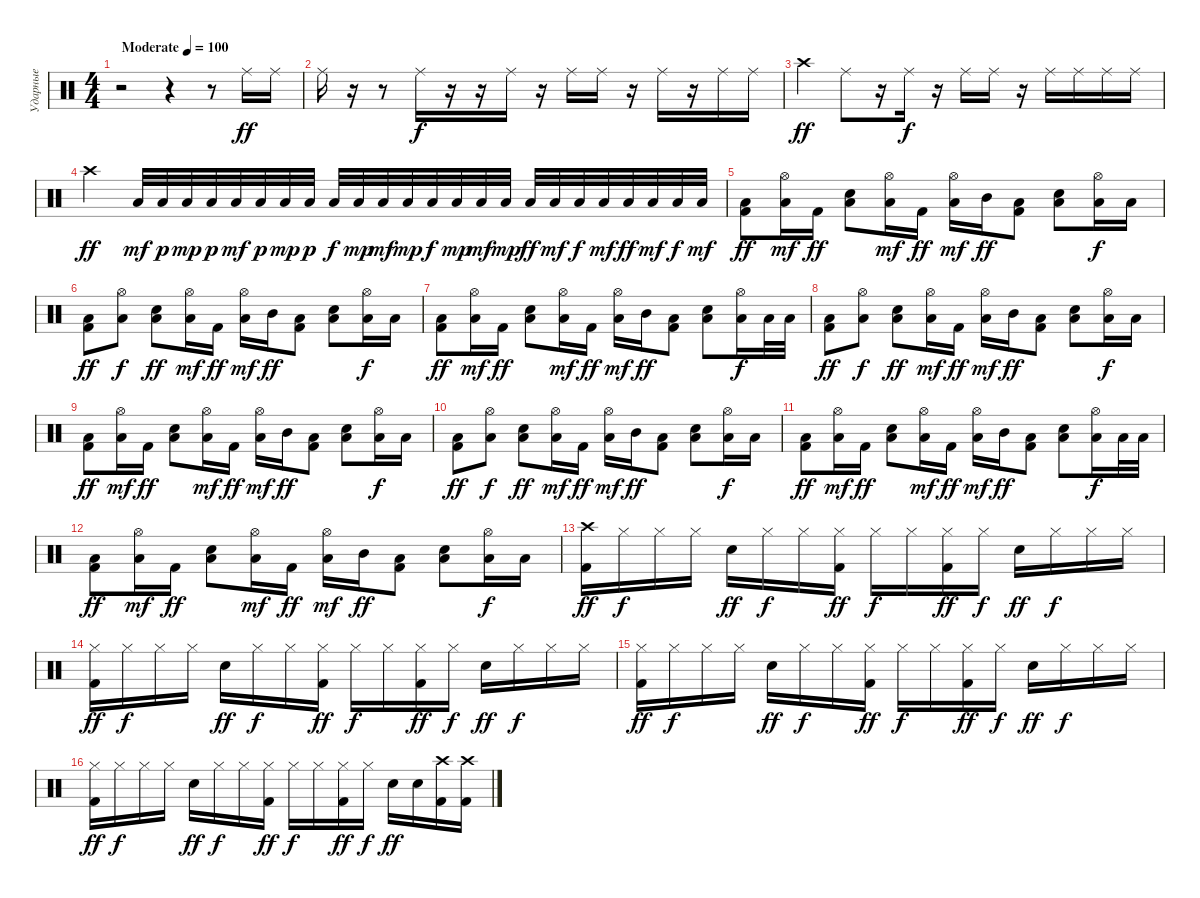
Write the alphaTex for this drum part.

\track ("Ударные" "Ударные") {instrument percussion}
\staff {score}
\articulation defaults
\ts (4 4)
\tempo (100 "Moderate")
\clef neutral
\ks c
r.2{dy ff} r.4 r.8 "Ride (middle)".16 "Ride (middle)".16 |
"Ride (middle)".16 r.16 r.8 "Ride (middle)".16{dy f} r.16 r.16 "Ride (middle)".16 r.16 "Ride (middle)".16 "Ride (middle)".16 r.16 "Ride (middle)".16 r.16 "Ride (middle)".16 "Ride (middle)".16 |
"Crash high (hit)".4{dy ff} "Ride (middle)".8 r.16 "Ride (middle)".16{dy f} r.16 "Ride (middle)".16 "Ride (middle)".16 r.16 "Ride (middle)".16 "Ride (middle)".16 "Ride (middle)".16 "Ride (middle)".16 |
"Crash high (hit)".4{dy ff} "Low Floor Tom (hit)".32{dy mf} "Low Floor Tom (hit)".32{dy p} "Low Floor Tom (hit)".32{dy mp} "Low Floor Tom (hit)".32{dy p} "Low Floor Tom (hit)".32{dy mf} "Low Floor Tom (hit)".32{dy p} "Low Floor Tom (hit)".32{dy mp} "Low Floor Tom (hit)".32{dy p} "Low Floor Tom (hit)".32{dy f} "Low Floor Tom (hit)".32{dy mp} "Low Floor Tom (hit)".32{dy mf} "Low Floor Tom (hit)".32{dy mp} "Low Floor Tom (hit)".32{dy f} "Low Floor Tom (hit)".32{dy mp} "Low Floor Tom (hit)".32{dy mf} "Low Floor Tom (hit)".32{dy mp} "Low Floor Tom (hit)".32{dy ff} "Low Floor Tom (hit)".32{dy mf} "Low Floor Tom (hit)".32{dy f} "Low Floor Tom (hit)".32{dy mf} "Low Floor Tom (hit)".32{dy ff} "Low Floor Tom (hit)".32{dy mf} "Low Floor Tom (hit)".32{dy f} "Low Floor Tom (hit)".32{dy mf} |
("Low Tom (hit)" "Kick (hit) 2").8{dy ff} ("Hi-Hat (open)" "Low Tom (hit)").16{dy mf} "Kick (hit) 2".16{dy ff} ("Low Tom (hit)" "Snare (hit) 2").8 ("Hi-Hat (open)" "Low Tom (hit)").16{dy mf} "Kick (hit) 2".16{dy ff} ("Hi-Hat (open)" "Low Tom (hit)").16{dy mf} "Mid Tom (hit)".16{dy ff} ("Low Tom (hit)" "Kick (hit) 2").8 ("Low Tom (hit)" "Snare (hit) 2").8 ("Hi-Hat (open)" "Low Tom (hit)").16{dy f} "Low Tom (hit)".16 |
("Low Tom (hit)" "Kick (hit) 2").8{dy ff} ("Hi-Hat (open)" "Low Tom (hit)").8{dy f} ("Low Tom (hit)" "Snare (hit) 2").8{dy ff} ("Hi-Hat (open)" "Low Tom (hit)").16{dy mf} "Kick (hit) 2".16{dy ff} ("Hi-Hat (open)" "Low Tom (hit)").16{dy mf} "Mid Tom (hit)".16{dy ff} ("Low Tom (hit)" "Kick (hit) 2").8 ("Low Tom (hit)" "Snare (hit) 2").8 ("Hi-Hat (open)" "Low Tom (hit)").16{dy f} "Low Tom (hit)".16 |
("Low Tom (hit)" "Kick (hit) 2").8{dy ff} ("Hi-Hat (open)" "Low Tom (hit)").16{dy mf} "Kick (hit) 2".16{dy ff} ("Low Tom (hit)" "Snare (hit) 2").8 ("Hi-Hat (open)" "Low Tom (hit)").16{dy mf} "Kick (hit) 2".16{dy ff} ("Hi-Hat (open)" "Low Tom (hit)").16{dy mf} "Mid Tom (hit)".16{dy ff} ("Low Tom (hit)" "Kick (hit) 2").8 ("Low Tom (hit)" "Snare (hit) 2").8 ("Hi-Hat (open)" "Low Tom (hit)").16{dy f} "Low Tom (hit)".32 "Low Tom (hit)".32 |
("Low Tom (hit)" "Kick (hit) 2").8{dy ff} ("Hi-Hat (open)" "Low Tom (hit)").8{dy f} ("Low Tom (hit)" "Snare (hit) 2").8{dy ff} ("Hi-Hat (open)" "Low Tom (hit)").16{dy mf} "Kick (hit) 2".16{dy ff} ("Hi-Hat (open)" "Low Tom (hit)").16{dy mf} "Mid Tom (hit)".16{dy ff} ("Low Tom (hit)" "Kick (hit) 2").8 ("Low Tom (hit)" "Snare (hit) 2").8 ("Hi-Hat (open)" "Low Tom (hit)").16{dy f} "Low Tom (hit)".16 |
("Low Tom (hit)" "Kick (hit) 2").8{dy ff} ("Hi-Hat (open)" "Low Tom (hit)").16{dy mf} "Kick (hit) 2".16{dy ff} ("Low Tom (hit)" "Snare (hit) 2").8 ("Hi-Hat (open)" "Low Tom (hit)").16{dy mf} "Kick (hit) 2".16{dy ff} ("Hi-Hat (open)" "Low Tom (hit)").16{dy mf} "Mid Tom (hit)".16{dy ff} ("Low Tom (hit)" "Kick (hit) 2").8 ("Low Tom (hit)" "Snare (hit) 2").8 ("Hi-Hat (open)" "Low Tom (hit)").16{dy f} "Low Tom (hit)".16 |
("Low Tom (hit)" "Kick (hit) 2").8{dy ff} ("Hi-Hat (open)" "Low Tom (hit)").8{dy f} ("Low Tom (hit)" "Snare (hit) 2").8{dy ff} ("Hi-Hat (open)" "Low Tom (hit)").16{dy mf} "Kick (hit) 2".16{dy ff} ("Hi-Hat (open)" "Low Tom (hit)").16{dy mf} "Mid Tom (hit)".16{dy ff} ("Low Tom (hit)" "Kick (hit) 2").8 ("Low Tom (hit)" "Snare (hit) 2").8 ("Hi-Hat (open)" "Low Tom (hit)").16{dy f} "Low Tom (hit)".16 |
("Low Tom (hit)" "Kick (hit) 2").8{dy ff} ("Hi-Hat (open)" "Low Tom (hit)").16{dy mf} "Kick (hit) 2".16{dy ff} ("Low Tom (hit)" "Snare (hit) 2").8 ("Hi-Hat (open)" "Low Tom (hit)").16{dy mf} "Kick (hit) 2".16{dy ff} ("Hi-Hat (open)" "Low Tom (hit)").16{dy mf} "Mid Tom (hit)".16{dy ff} ("Low Tom (hit)" "Kick (hit) 2").8 ("Low Tom (hit)" "Snare (hit) 2").8 ("Hi-Hat (open)" "Low Tom (hit)").16{dy f} "Low Tom (hit)".32 "Low Tom (hit)".32 |
("Low Tom (hit)" "Kick (hit) 2").8{dy ff} ("Hi-Hat (open)" "Low Tom (hit)").16{dy mf} "Kick (hit) 2".16{dy ff} ("Low Tom (hit)" "Snare (hit) 2").8 ("Hi-Hat (open)" "Low Tom (hit)").16{dy mf} "Kick (hit) 2".16{dy ff} ("Hi-Hat (open)" "Low Tom (hit)").16{dy mf} "Mid Tom (hit)".16{dy ff} ("Low Tom (hit)" "Kick (hit) 2").8 ("Low Tom (hit)" "Snare (hit) 2").8 ("Hi-Hat (open)" "Low Floor Tom (hit)").16{dy f} "Low Floor Tom (hit)".16 |
("Crash high (hit)" "Kick (hit) 2").16{dy ff} "Hi-Hat (closed)".16{dy f} "Hi-Hat (closed)".16 "Hi-Hat (closed)".16 "Snare (hit) 2".16{dy ff} "Hi-Hat (closed)".16{dy f} "Hi-Hat (closed)".16 ("Hi-Hat (closed)" "Kick (hit) 2").16{dy ff} "Hi-Hat (closed)".16{dy f} "Hi-Hat (closed)".16 ("Hi-Hat (closed)" "Kick (hit) 2").16{dy ff} "Hi-Hat (closed)".16{dy f} "Snare (hit) 2".16{dy ff} "Hi-Hat (closed)".16{dy f} "Hi-Hat (closed)".16 "Hi-Hat (closed)".16 |
("Hi-Hat (closed)" "Kick (hit) 2").16{dy ff} "Hi-Hat (closed)".16{dy f} "Hi-Hat (closed)".16 "Hi-Hat (closed)".16 "Snare (hit) 2".16{dy ff} "Hi-Hat (closed)".16{dy f} "Hi-Hat (closed)".16 ("Hi-Hat (closed)" "Kick (hit) 2").16{dy ff} "Hi-Hat (closed)".16{dy f} "Hi-Hat (closed)".16 ("Hi-Hat (closed)" "Kick (hit) 2").16{dy ff} "Hi-Hat (closed)".16{dy f} "Snare (hit) 2".16{dy ff} "Hi-Hat (closed)".16{dy f} "Hi-Hat (closed)".16 "Hi-Hat (closed)".16 |
("Hi-Hat (closed)" "Kick (hit) 2").16{dy ff} "Hi-Hat (closed)".16{dy f} "Hi-Hat (closed)".16 "Hi-Hat (closed)".16 "Snare (hit) 2".16{dy ff} "Hi-Hat (closed)".16{dy f} "Hi-Hat (closed)".16 ("Hi-Hat (closed)" "Kick (hit) 2").16{dy ff} "Hi-Hat (closed)".16{dy f} "Hi-Hat (closed)".16 ("Hi-Hat (closed)" "Kick (hit) 2").16{dy ff} "Hi-Hat (closed)".16{dy f} "Snare (hit) 2".16{dy ff} "Hi-Hat (closed)".16{dy f} "Hi-Hat (closed)".16 "Hi-Hat (closed)".16 |
("Hi-Hat (closed)" "Kick (hit) 2").16{dy ff} "Hi-Hat (closed)".16{dy f} "Hi-Hat (closed)".16 "Hi-Hat (closed)".16 "Snare (hit) 2".16{dy ff} "Hi-Hat (closed)".16{dy f} "Hi-Hat (closed)".16 ("Hi-Hat (closed)" "Kick (hit) 2").16{dy ff} "Hi-Hat (closed)".16{dy f} "Hi-Hat (closed)".16 ("Hi-Hat (closed)" "Kick (hit) 2").16{dy ff} "Hi-Hat (closed)".16{dy f} "Snare (hit) 2".16{dy ff} "Snare (hit) 2".16 ("Crash high (hit)" "Kick (hit) 2").16 ("Crash high (hit)" "Kick (hit) 2").16
